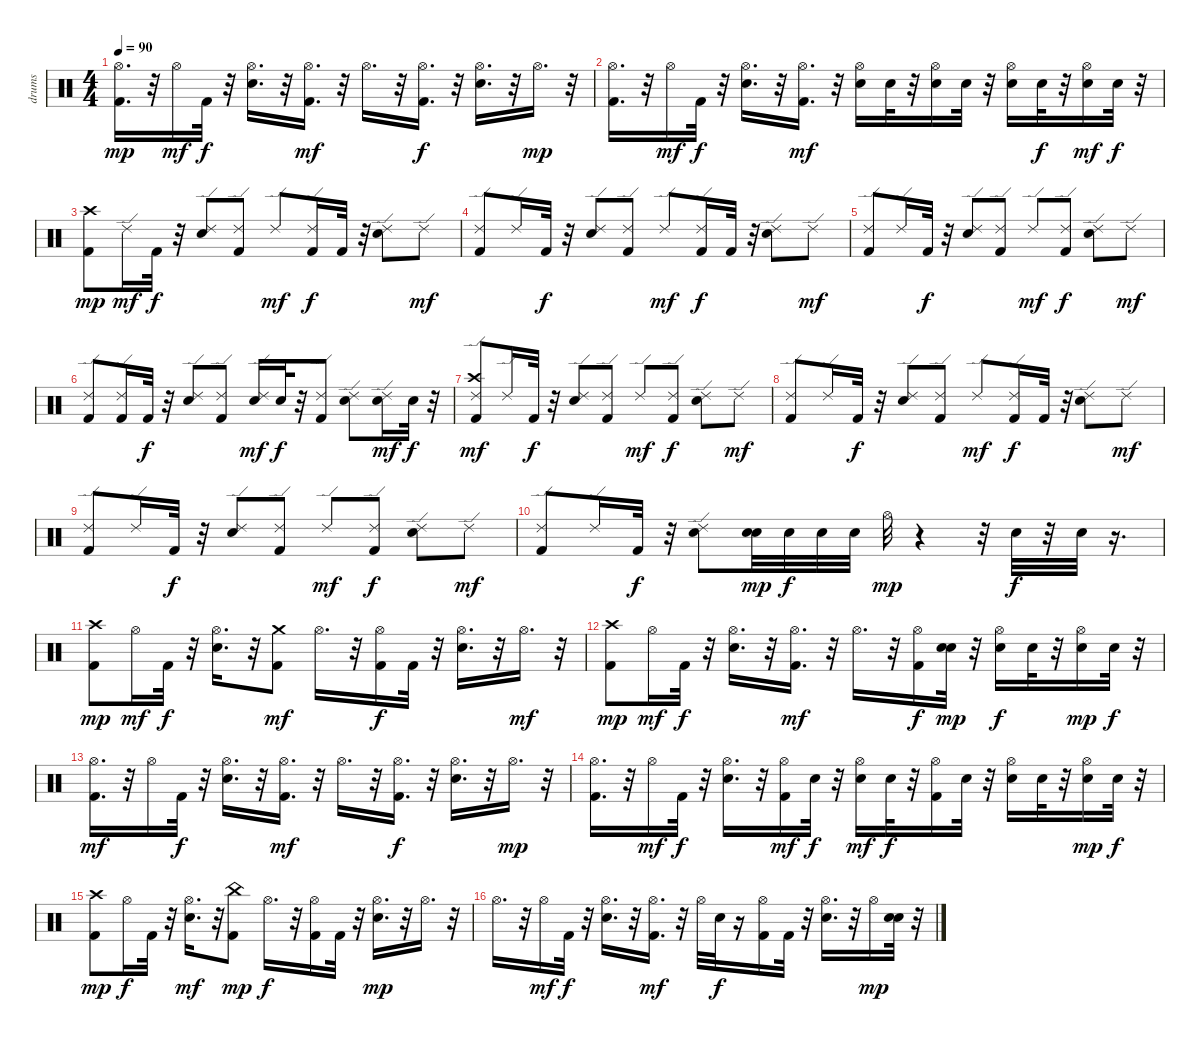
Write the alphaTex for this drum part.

\track ("drums" "drums") {instrument percussion}
\staff {score}
\articulation defaults
\ts (4 4)
\tempo 90
\clef neutral
\ks c
("Kick (hit) 2" "Hi-Hat (open)").16{d dy mp} r.32 "Hi-Hat (open)".16{dy mf} "Kick (hit) 2".32{dy f} r.32 ("Snare (hit) 2" "Hi-Hat (open)").16{d} r.32 ("Kick (hit) 2" "Hi-Hat (open)").16{d dy mf} r.32 "Hi-Hat (open)".16{d} r.32 ("Kick (hit) 2" "Hi-Hat (open)").16{d dy f} r.32 ("Snare (hit) 2" "Hi-Hat (open)").16{d} r.32 "Hi-Hat (open)".16{d dy mp} r.32 |
("Kick (hit) 2" "Hi-Hat (open)").16{d} r.32 "Hi-Hat (open)".16{dy mf} "Kick (hit) 2".32{dy f} r.32 ("Snare (hit) 2" "Hi-Hat (open)").16{d} r.32 ("Kick (hit) 2" "Hi-Hat (open)").16{d dy mf} r.32 ("Snare (hit) 2" "Hi-Hat (open)").16 "Snare (hit) 2".32 r.32 ("Snare (hit) 2" "Hi-Hat (open)").16 "Snare (hit) 2".32 r.32 ("Snare (hit) 2" "Hi-Hat (open)").16 "Snare (hit) 2".32{dy f} r.32 ("Snare (hit) 2" "Hi-Hat (open)").16{dy mf} "Snare (hit) 2".32{dy f} r.32 |
("Kick (hit) 2" "Crash high (hit)").8{dy mp} "Ride (edge) 2".16{dy mf} "Kick (hit) 2".32{dy f} r.32 ("Snare (hit) 2" "Ride (edge) 2").8 ("Kick (hit) 2" "Ride (edge) 2").8 "Ride (edge) 2".8{dy mf} ("Kick (hit) 2" "Ride (edge) 2").16{dy f} "Kick (hit) 2".32 r.32 ("Snare (hit) 2" "Ride (edge) 2").8 "Ride (edge) 2".8{dy mf} |
("Kick (hit) 2" "Ride (edge) 2").8 "Ride (edge) 2".16 "Kick (hit) 2".32{dy f} r.32 ("Snare (hit) 2" "Ride (edge) 2").8 ("Kick (hit) 2" "Ride (edge) 2").8 "Ride (edge) 2".8{dy mf} ("Kick (hit) 2" "Ride (edge) 2").16{dy f} "Kick (hit) 2".32 r.32 ("Snare (hit) 2" "Ride (edge) 2").8 "Ride (edge) 2".8{dy mf} |
("Kick (hit) 2" "Ride (edge) 2").8 "Ride (edge) 2".16 "Kick (hit) 2".32{dy f} r.32 ("Snare (hit) 2" "Ride (edge) 2").8 ("Kick (hit) 2" "Ride (edge) 2").8 "Ride (edge) 2".8{dy mf} ("Kick (hit) 2" "Ride (edge) 2").8{dy f} ("Snare (hit) 2" "Ride (edge) 2").8 "Ride (edge) 2".8{dy mf} |
("Kick (hit) 2" "Ride (edge) 2").8 ("Kick (hit) 2" "Ride (edge) 2").16 "Kick (hit) 2".32{dy f} r.32 ("Snare (hit) 2" "Ride (edge) 2").8 ("Kick (hit) 2" "Ride (edge) 2").8 ("Snare (hit) 2" "Ride (edge) 2").16{dy mf} "Snare (hit) 2".32{dy f} r.32 ("Kick (hit) 2" "Ride (edge) 2").8 ("Snare (hit) 2" "Ride (edge) 2").8 ("Snare (hit) 2" "Ride (edge) 2").16{dy mf} "Snare (hit) 2".32{dy f} r.32 |
("Kick (hit) 2" "Crash high (hit)" "Ride (edge) 2").8{dy mf} "Ride (edge) 2".16 "Kick (hit) 2".32{dy f} r.32 ("Snare (hit) 2" "Ride (edge) 2").8 ("Kick (hit) 2" "Ride (edge) 2").8 "Ride (edge) 2".8{dy mf} ("Kick (hit) 2" "Ride (edge) 2").8{dy f} ("Snare (hit) 2" "Ride (edge) 2").8 "Ride (edge) 2".8{dy mf} |
("Kick (hit) 2" "Ride (edge) 2").8 "Ride (edge) 2".16 "Kick (hit) 2".32{dy f} r.32 ("Snare (hit) 2" "Ride (edge) 2").8 ("Kick (hit) 2" "Ride (edge) 2").8 "Ride (edge) 2".8{dy mf} ("Kick (hit) 2" "Ride (edge) 2").16{dy f} "Kick (hit) 2".32 r.32 ("Snare (hit) 2" "Ride (edge) 2").8 "Ride (edge) 2".8{dy mf} |
("Kick (hit) 2" "Ride (edge) 2").8 "Ride (edge) 2".16 "Kick (hit) 2".32{dy f} r.32 ("Snare (hit) 2" "Ride (edge) 2").8 ("Kick (hit) 2" "Ride (edge) 2").8 "Ride (edge) 2".8{dy mf} ("Kick (hit) 2" "Ride (edge) 2").8{dy f} ("Snare (hit) 2" "Ride (edge) 2").8 "Ride (edge) 2".8{dy mf} |
("Kick (hit) 2" "Ride (edge) 2").8 "Ride (edge) 2".16 "Kick (hit) 2".32{dy f} r.32 ("Snare (hit) 2" "Ride (edge) 2").8 ("Snare (hit) 2" "Snare (hit) 2").32{dy mp} "Snare (hit) 2".32{dy f} "Snare (hit) 2".32 "Snare (hit) 2".32 "Hi-Hat (open)".32{dy mp} r.4 r.32 "Snare (hit) 2".32{dy f} r.32 "Snare (hit) 2".32 r.16{d} |
("Kick (hit) 2" "Crash high (hit)").8{dy mp} "Hi-Hat (open)".16{dy mf} "Kick (hit) 2".32{dy f} r.32 ("Snare (hit) 2" "Hi-Hat (open)").16{d} r.32 ("Kick (hit) 2" "Crash medium (hit)").8{dy mf} "Hi-Hat (open)".16{d} r.32 ("Kick (hit) 2" "Hi-Hat (open)").16{dy f} "Kick (hit) 2".32 r.32 ("Snare (hit) 2" "Hi-Hat (open)").16{d} r.32 "Hi-Hat (open)".16{d dy mf} r.32 |
("Kick (hit) 2" "Crash high (hit)").8{dy mp} "Hi-Hat (open)".16{dy mf} "Kick (hit) 2".32{dy f} r.32 ("Snare (hit) 2" "Hi-Hat (open)").16{d} r.32 ("Kick (hit) 2" "Hi-Hat (open)").16{d dy mf} r.32 "Hi-Hat (open)".16{d} r.32 ("Kick (hit) 2" "Hi-Hat (open)").16{dy f} ("Snare (hit) 2" "Snare (hit) 2").32{dy mp} r.32 ("Snare (hit) 2" "Hi-Hat (open)").16{dy f} "Snare (hit) 2".32 r.32 ("Snare (hit) 2" "Hi-Hat (open)").16{dy mp} "Snare (hit) 2".32{dy f} r.32 |
("Kick (hit) 2" "Hi-Hat (open)").16{d dy mf} r.32 "Hi-Hat (open)".16 "Kick (hit) 2".32{dy f} r.32 ("Snare (hit) 2" "Hi-Hat (open)").16{d} r.32 ("Kick (hit) 2" "Hi-Hat (open)").16{d dy mf} r.32 "Hi-Hat (open)".16{d} r.32 ("Kick (hit) 2" "Hi-Hat (open)").16{d dy f} r.32 ("Snare (hit) 2" "Hi-Hat (open)").16{d} r.32 "Hi-Hat (open)".16{d dy mp} r.32 |
("Kick (hit) 2" "Hi-Hat (open)").16{d} r.32 "Hi-Hat (open)".16{dy mf} "Kick (hit) 2".32{dy f} r.32 ("Snare (hit) 2" "Hi-Hat (open)").16{d} r.32 ("Kick (hit) 2" "Hi-Hat (open)").16{dy mf} "Snare (hit) 2".32{dy f} r.32 ("Snare (hit) 2" "Hi-Hat (open)").16{dy mf} "Snare (hit) 2".32{dy f} r.32 ("Kick (hit) 2" "Hi-Hat (open)").16 "Snare (hit) 2".32 r.32 ("Snare (hit) 2" "Hi-Hat (open)").16 "Snare (hit) 2".32 r.32 ("Snare (hit) 2" "Hi-Hat (open)").16{dy mp} "Snare (hit) 2".32{dy f} r.32 |
("Kick (hit) 2" "Crash high (hit)").8{dy mp} "Hi-Hat (open)".16{dy f} "Kick (hit) 2".32 r.32 ("Snare (hit) 2" "Hi-Hat (open)").16{d dy mf} r.32 ("Kick (hit) 2" "China (hit)").8{dy mp} "Hi-Hat (open)".16{d dy f} r.32 ("Kick (hit) 2" "Hi-Hat (open)").16 "Kick (hit) 2".32 r.32 ("Snare (hit) 2" "Hi-Hat (open)").16{d dy mp} r.32 "Hi-Hat (open)".16{d} r.32 |
"Hi-Hat (open)".16{d} r.32 "Hi-Hat (open)".16{dy mf} "Kick (hit) 2".32{dy f} r.32 ("Snare (hit) 2" "Hi-Hat (open)").16{d} r.32 ("Kick (hit) 2" "Hi-Hat (open)").16{d dy mf} r.32 "Hi-Hat (open)".32 "Snare (hit) 2".32{dy f} r.16 ("Kick (hit) 2" "Hi-Hat (open)").16 "Kick (hit) 2".32 r.32 ("Snare (hit) 2" "Hi-Hat (open)").16{d} r.32 "Hi-Hat (open)".16{dy mp} ("Snare (hit) 2" "Snare (hit) 2").32 r.32
